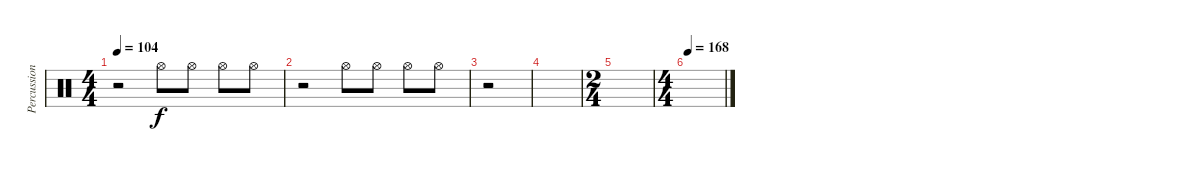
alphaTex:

\track ("Percussion" "Percussion") {instrument percussion}
\staff {score}
\articulation defaults
\ts (4 4)
\tempo 104
\clef neutral
\ks c
r.2{dy f} "Hi-Hat (open)".8 "Hi-Hat (open)".8 "Hi-Hat (open)".8 "Hi-Hat (open)".8 |
r.2 "Hi-Hat (open)".8 "Hi-Hat (open)".8 "Hi-Hat (open)".8 "Hi-Hat (open)".8 |
r.2 |
|
\ts (2 4)
|
\ts (4 4)
\tempo 168
